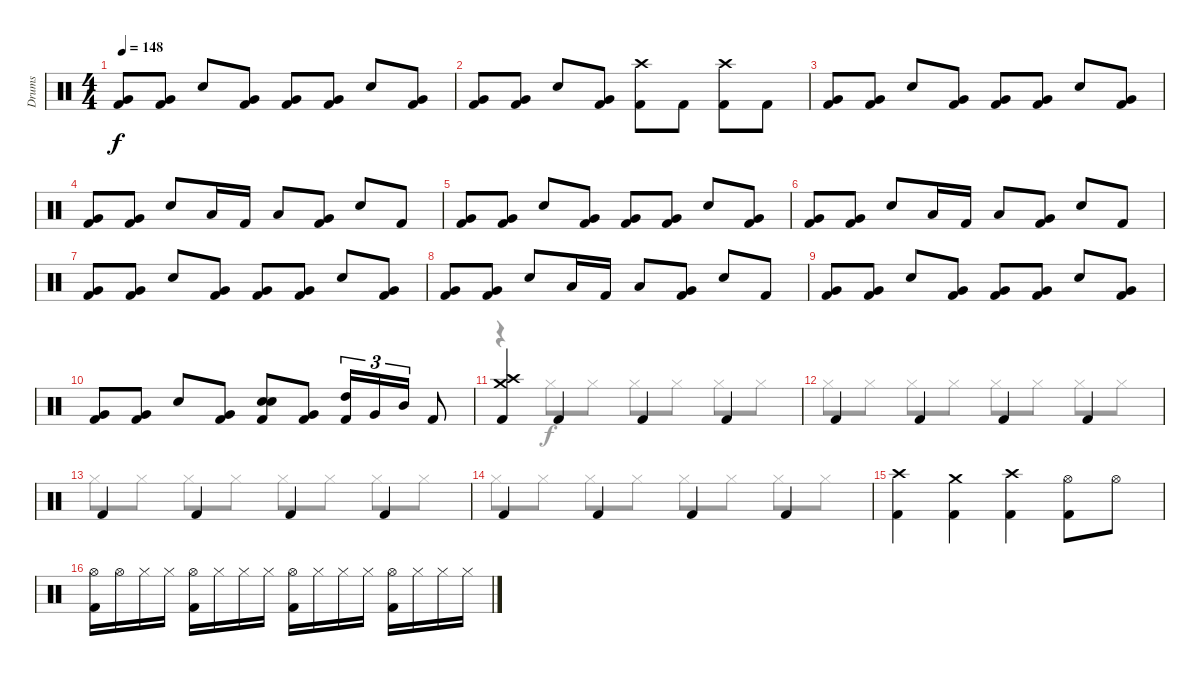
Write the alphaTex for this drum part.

\track ("Drums" "Drums") {instrument percussion}
\staff {score}
\articulation defaults
\voice
\ts (4 4)
\tempo 148
\clef neutral
\ks c
("Very Low Tom (hit)" "Kick (hit) 2").8{dy f} ("Very Low Tom (hit)" "Kick (hit) 2").8 "Snare (hit) 2".8 ("Very Low Tom (hit)" "Kick (hit) 2").8 ("Very Low Tom (hit)" "Kick (hit) 2").8 ("Very Low Tom (hit)" "Kick (hit) 2").8 "Snare (hit) 2".8 ("Very Low Tom (hit)" "Kick (hit) 2").8 |
("Very Low Tom (hit)" "Kick (hit) 2").8 ("Very Low Tom (hit)" "Kick (hit) 2").8 "Snare (hit) 2".8 ("Very Low Tom (hit)" "Kick (hit) 2").8 ("Crash high (hit)" "Kick (hit) 2").8 "Kick (hit) 2".8 ("Crash high (hit)" "Kick (hit) 2").8 "Kick (hit) 2".8 |
("Very Low Tom (hit)" "Kick (hit) 2").8 ("Very Low Tom (hit)" "Kick (hit) 2").8 "Snare (hit) 2".8 ("Very Low Tom (hit)" "Kick (hit) 2").8 ("Very Low Tom (hit)" "Kick (hit) 2").8 ("Very Low Tom (hit)" "Kick (hit) 2").8 "Snare (hit) 2".8 ("Very Low Tom (hit)" "Kick (hit) 2").8 |
("Very Low Tom (hit)" "Kick (hit) 2").8 ("Very Low Tom (hit)" "Kick (hit) 2").8 "Snare (hit) 2".8 "Low Tom (hit)".16 "Kick (hit) 2".16 "Low Tom (hit)".8 ("Very Low Tom (hit)" "Kick (hit) 2").8 "Snare (hit) 2".8 "Kick (hit) 2".8 |
("Very Low Tom (hit)" "Kick (hit) 2").8 ("Very Low Tom (hit)" "Kick (hit) 2").8 "Snare (hit) 2".8 ("Very Low Tom (hit)" "Kick (hit) 2").8 ("Very Low Tom (hit)" "Kick (hit) 2").8 ("Very Low Tom (hit)" "Kick (hit) 2").8 "Snare (hit) 2".8 ("Very Low Tom (hit)" "Kick (hit) 2").8 |
("Very Low Tom (hit)" "Kick (hit) 2").8 ("Very Low Tom (hit)" "Kick (hit) 2").8 "Snare (hit) 2".8 "Low Tom (hit)".16 "Kick (hit) 2".16 "Low Tom (hit)".8 ("Very Low Tom (hit)" "Kick (hit) 2").8 "Snare (hit) 2".8 "Kick (hit) 2".8 |
("Very Low Tom (hit)" "Kick (hit) 2").8 ("Very Low Tom (hit)" "Kick (hit) 2").8 "Snare (hit) 2".8 ("Very Low Tom (hit)" "Kick (hit) 2").8 ("Very Low Tom (hit)" "Kick (hit) 2").8 ("Very Low Tom (hit)" "Kick (hit) 2").8 "Snare (hit) 2".8 ("Very Low Tom (hit)" "Kick (hit) 2").8 |
("Very Low Tom (hit)" "Kick (hit) 2").8 ("Very Low Tom (hit)" "Kick (hit) 2").8 "Snare (hit) 2".8 "Low Tom (hit)".16 "Kick (hit) 2".16 "Low Tom (hit)".8 ("Very Low Tom (hit)" "Kick (hit) 2").8 "Snare (hit) 2".8 "Kick (hit) 2".8 |
("Very Low Tom (hit)" "Kick (hit) 2").8 ("Very Low Tom (hit)" "Kick (hit) 2").8 "Snare (hit) 2".8 ("Very Low Tom (hit)" "Kick (hit) 2").8 ("Very Low Tom (hit)" "Kick (hit) 2").8 ("Very Low Tom (hit)" "Kick (hit) 2").8 "Snare (hit) 2".8 ("Very Low Tom (hit)" "Kick (hit) 2").8 |
("Very Low Tom (hit)" "Kick (hit) 2").8 ("Very Low Tom (hit)" "Kick (hit) 2").8 "Snare (hit) 2".8 ("Very Low Tom (hit)" "Kick (hit) 2").8 ("Electric Snare (hit)" "Snare (hit) 2" "Kick (hit) 2").8 ("Very Low Tom (hit)" "Kick (hit) 2").8 ("High Tom (hit)" "Kick (hit) 2").16{tu (3 2)} "Very Low Tom (hit)".16{tu (3 2)} "Mid Tom (hit)".16{tu (3 2)} "Kick (hit) 2".8 |
("Crash high (hit)" "Crash medium (hit)" "Kick (hit) 2").4 "Kick (hit) 2".4 "Kick (hit) 2".4 "Kick (hit) 2".4 |
"Kick (hit) 2".4 "Kick (hit) 2".4 "Kick (hit) 2".4 "Kick (hit) 2".4 |
"Kick (hit) 2".4 "Kick (hit) 2".4 "Kick (hit) 2".4 "Kick (hit) 2".4 |
"Kick (hit) 2".4 "Kick (hit) 2".4 "Kick (hit) 2".4 "Kick (hit) 2".4 |
("Crash high (hit)" "Kick (hit) 2").4 ("Crash medium (hit)" "Kick (hit) 2").4 ("Crash high (hit)" "Kick (hit) 2").4 ("Hi-Hat (open)" "Kick (hit) 2").8 "Hi-Hat (open)".8 |
("Hi-Hat (open)" "Kick (hit) 2").16 "Hi-Hat (open)".16 "Hi-Hat (closed)".16 "Hi-Hat (closed)".16 ("Hi-Hat (open)" "Kick (hit) 2").16 "Hi-Hat (closed)".16 "Hi-Hat (closed)".16 "Hi-Hat (closed)".16 ("Hi-Hat (open)" "Kick (hit) 2").16 "Hi-Hat (closed)".16 "Hi-Hat (closed)".16 "Hi-Hat (closed)".16 ("Hi-Hat (open)" "Kick (hit) 2").16 "Hi-Hat (closed)".16 "Hi-Hat (closed)".16 "Hi-Hat (closed)".16
\voice
\clef neutral
\ottava regular
\simile none
\ks c
|
|
|
|
|
|
|
|
|
|
r.4 "Hi-Hat (closed)".8 "Hi-Hat (closed)".8 "Hi-Hat (closed)".8 "Hi-Hat (closed)".8 "Hi-Hat (closed)".8 "Hi-Hat (closed)".8 |
"Hi-Hat (closed)".8 "Hi-Hat (closed)".8 "Hi-Hat (closed)".8 "Hi-Hat (closed)".8 "Hi-Hat (closed)".8 "Hi-Hat (closed)".8 "Hi-Hat (closed)".8 "Hi-Hat (closed)".8 |
"Hi-Hat (closed)".8 "Hi-Hat (closed)".8 "Hi-Hat (closed)".8 "Hi-Hat (closed)".8 "Hi-Hat (closed)".8 "Hi-Hat (closed)".8 "Hi-Hat (closed)".8 "Hi-Hat (closed)".8 |
"Hi-Hat (closed)".8 "Hi-Hat (closed)".8 "Hi-Hat (closed)".8 "Hi-Hat (closed)".8 "Hi-Hat (closed)".8 "Hi-Hat (closed)".8 "Hi-Hat (closed)".8 "Hi-Hat (closed)".8 |
|
